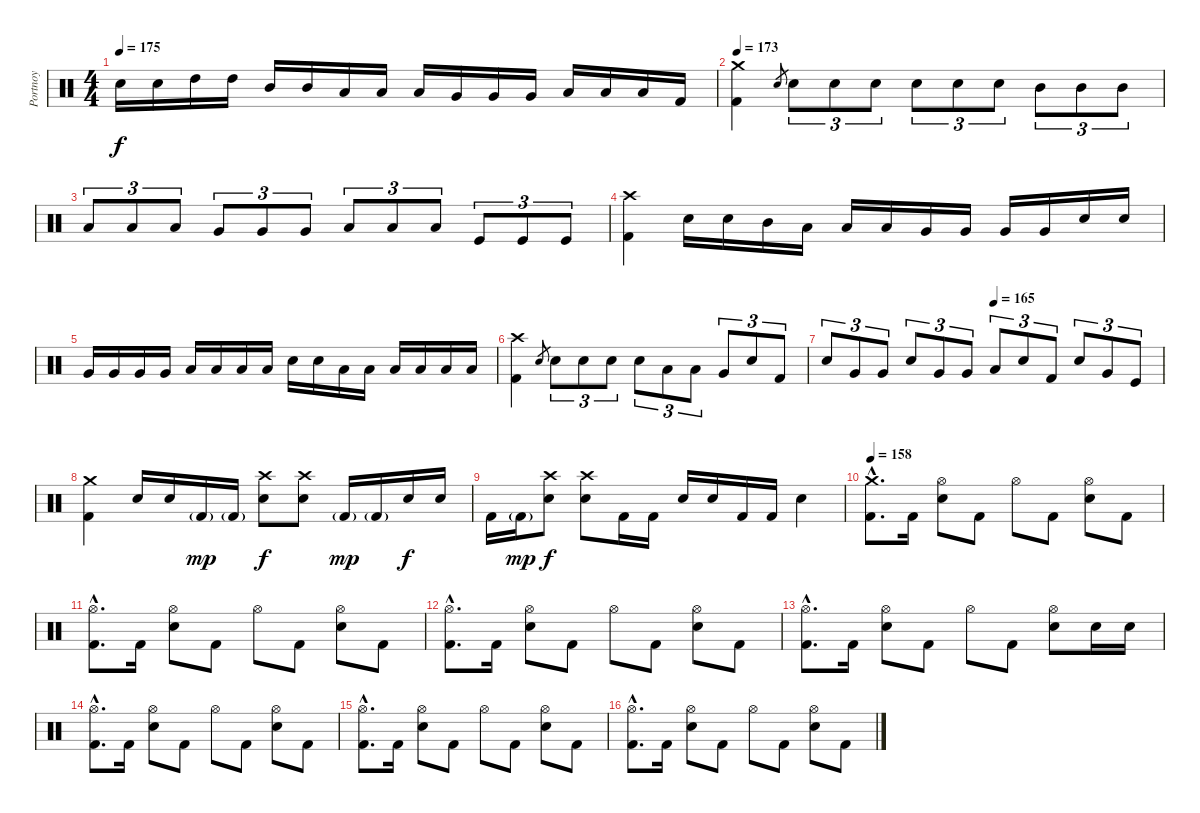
\track ("Portnoy" "Portnoy") {instrument percussion}
\staff {score}
\articulation defaults
\ts (4 4)
\tempo 175
\clef neutral
\ks c "Electric Snare (hit)".16{dy f} "Electric Snare (hit)".16 "High Tom (hit)".16 "High Tom (hit)".16 "Mid Tom (hit)".16 "Mid Tom (hit)".16 "Low Tom (hit)".16 "Low Tom (hit)".16 "Low Tom (hit)".16 "Very Low Tom (hit)".16 "Very Low Tom (hit)".16 "Very Low Tom (hit)".16 "Low Floor Tom (hit)".16 "Low Floor Tom (hit)".16 "Low Floor Tom (hit)".16 "Kick (hit) 2".16
|
\tempo 173
("Kick (hit) 2" "Crash medium (hit)").4 "Electric Snare (hit)".8{gr} "Electric Snare (hit)".8{tu (3 2)} "Electric Snare (hit)".8{tu (3 2)} "Electric Snare (hit)".8{tu (3 2)} "Electric Snare (hit)".8{tu (3 2)} "Electric Snare (hit)".8{tu (3 2)} "Electric Snare (hit)".8{tu (3 2)} "Mid Tom (hit)".8{tu (3 2)} "Mid Tom (hit)".8{tu (3 2)} "Mid Tom (hit)".8{tu (3 2)} |
"Low Tom (hit)".8{tu (3 2)} "Low Tom (hit)".8{tu (3 2)} "Low Tom (hit)".8{tu (3 2)} "Very Low Tom (hit)".8{tu (3 2)} "Very Low Tom (hit)".8{tu (3 2)} "Very Low Tom (hit)".8{tu (3 2)} "Low Floor Tom (hit)".8{tu (3 2)} "Low Floor Tom (hit)".8{tu (3 2)} "Low Floor Tom (hit)".8{tu (3 2)} "Kick (hit)".8{tu (3 2)} "Kick (hit)".8{tu (3 2)} "Kick (hit)".8{tu (3 2)} |
("Kick (hit) 2" "Crash high (hit)").4 "Electric Snare (hit)".16 "Electric Snare (hit)".16 "Mid Tom (hit)".16 "Low Tom (hit)".16 "Low Tom (hit)".16 "Low Tom (hit)".16 "Very Low Tom (hit)".16 "Very Low Tom (hit)".16 "Very Low Tom (hit)".16 "Very Low Tom (hit)".16 "Electric Snare (hit)".16 "Electric Snare (hit)".16 |
"Very Low Tom (hit)".16 "Very Low Tom (hit)".16 "Very Low Tom (hit)".16 "Very Low Tom (hit)".16 "Low Floor Tom (hit)".16 "Low Floor Tom (hit)".16 "Low Floor Tom (hit)".16 "Low Floor Tom (hit)".16 "Electric Snare (hit)".16 "Electric Snare (hit)".16 "Low Floor Tom (hit)".16 "Low Floor Tom (hit)".16 "Low Floor Tom (hit)".16 "Low Floor Tom (hit)".16 "Low Floor Tom (hit)".16 "Low Floor Tom (hit)".16 |
("Kick (hit) 2" "Crash high (hit)").4 "Electric Snare (hit)".8{gr} "Electric Snare (hit)".8{tu (3 2)} "Electric Snare (hit)".8{tu (3 2)} "Electric Snare (hit)".8{tu (3 2)} "Electric Snare (hit)".8{tu (3 2)} "Low Tom (hit)".8{tu (3 2)} "Low Tom (hit)".8{tu (3 2)} "Very Low Tom (hit)".8{tu (3 2)} "Electric Snare (hit)".8{tu (3 2)} "Kick (hit) 2".8{tu (3 2)} |
\tempo (165 0.5)
"Electric Snare (hit)".8{tu (3 2)} "Very Low Tom (hit)".8{tu (3 2)} "Very Low Tom (hit)".8{tu (3 2)} "Electric Snare (hit)".8{tu (3 2)} "Very Low Tom (hit)".8{tu (3 2)} "Very Low Tom (hit)".8{tu (3 2)} "Low Floor Tom (hit)".8{tu (3 2)} "Electric Snare (hit)".8{tu (3 2)} "Kick (hit) 2".8{tu (3 2)} "Electric Snare (hit)".8{tu (3 2)} "Very Low Tom (hit)".8{tu (3 2)} "Kick (hit)".8{tu (3 2)} |
("Kick (hit) 2" "Crash medium (hit)").4 "Electric Snare (hit)".16 "Electric Snare (hit)".16 "Kick (hit) 2"{g}.16{dy mp} "Kick (hit) 2"{g}.16 ("Electric Snare (hit)" "Crash high (hit)").8{dy f} ("Electric Snare (hit)" "Crash high (hit)").8 "Kick (hit) 2"{g}.16{dy mp} "Kick (hit) 2"{g}.16 "Electric Snare (hit)".16{dy f} "Electric Snare (hit)".16 |
"Kick (hit) 2".16 "Kick (hit) 2"{g}.16{dy mp} ("Electric Snare (hit)" "Crash high (hit)").8{dy f} ("Electric Snare (hit)" "Crash high (hit)").8 "Kick (hit) 2".16 "Kick (hit) 2".16 "Electric Snare (hit)".16 "Electric Snare (hit)".16 "Kick (hit) 2".16 "Kick (hit) 2".16 "Electric Snare (hit)".4 |
\tempo 158
("Kick (hit) 2"{hac} "Crash medium (hit)"{hac}).8{d} "Kick (hit) 2".16 ("Electric Snare (hit)" "Hi-Hat (open)").8 "Kick (hit) 2".8 "Hi-Hat (open)".8 "Kick (hit) 2".8 ("Electric Snare (hit)" "Hi-Hat (open)").8 "Kick (hit) 2".8 |
("Kick (hit) 2"{hac} "Hi-Hat (open)"{hac}).8{d} "Kick (hit) 2".16 ("Electric Snare (hit)" "Hi-Hat (open)").8 "Kick (hit) 2".8 "Hi-Hat (open)".8 "Kick (hit) 2".8 ("Electric Snare (hit)" "Hi-Hat (open)").8 "Kick (hit) 2".8 |
("Kick (hit) 2"{hac} "Hi-Hat (open)"{hac}).8{d} "Kick (hit) 2".16 ("Electric Snare (hit)" "Hi-Hat (open)").8 "Kick (hit) 2".8 "Hi-Hat (open)".8 "Kick (hit) 2".8 ("Electric Snare (hit)" "Hi-Hat (open)").8 "Kick (hit) 2".8 |
("Kick (hit) 2"{hac} "Hi-Hat (open)"{hac}).8{d} "Kick (hit) 2".16 ("Electric Snare (hit)" "Hi-Hat (open)").8 "Kick (hit) 2".8 "Hi-Hat (open)".8 "Kick (hit) 2".8 ("Electric Snare (hit)" "Hi-Hat (open)").8 "Electric Snare (hit)".16 "Electric Snare (hit)".16 |
("Kick (hit) 2"{hac} "Hi-Hat (open)"{hac}).8{d} "Kick (hit) 2".16 ("Electric Snare (hit)" "Hi-Hat (open)").8 "Kick (hit) 2".8 "Hi-Hat (open)".8 "Kick (hit) 2".8 ("Electric Snare (hit)" "Hi-Hat (open)").8 "Kick (hit) 2".8 |
("Kick (hit) 2"{hac} "Hi-Hat (open)"{hac}).8{d} "Kick (hit) 2".16 ("Electric Snare (hit)" "Hi-Hat (open)").8 "Kick (hit) 2".8 "Hi-Hat (open)".8 "Kick (hit) 2".8 ("Electric Snare (hit)" "Hi-Hat (open)").8 "Kick (hit) 2".8 |
("Kick (hit) 2"{hac} "Hi-Hat (open)"{hac}).8{d} "Kick (hit) 2".16 ("Electric Snare (hit)" "Hi-Hat (open)").8 "Kick (hit) 2".8 "Hi-Hat (open)".8 "Kick (hit) 2".8 ("Electric Snare (hit)" "Hi-Hat (open)").8 "Kick (hit) 2".8
